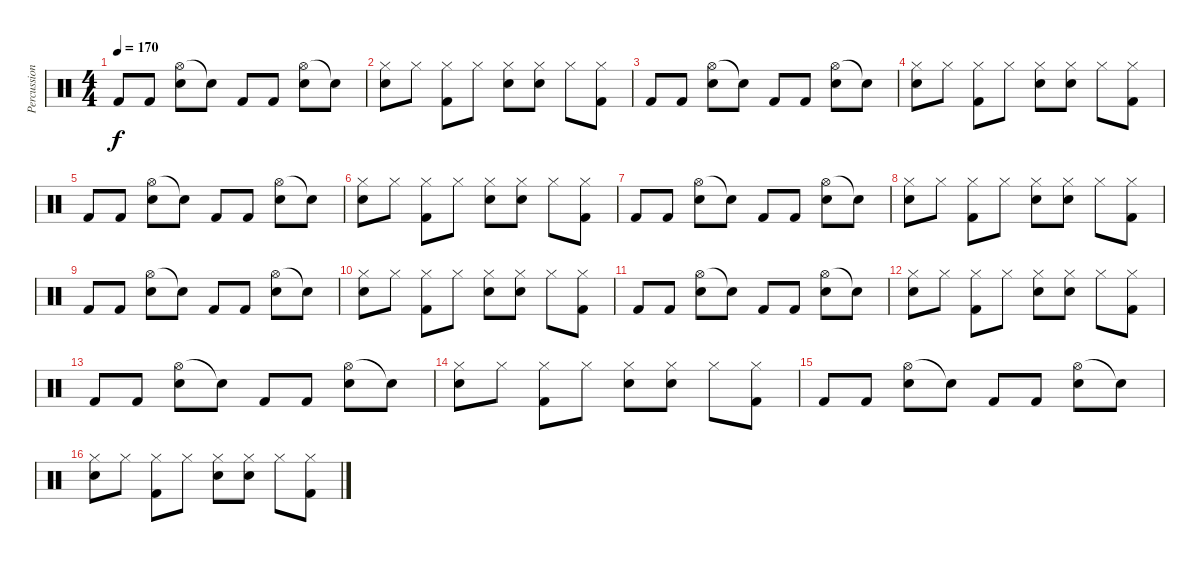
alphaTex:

\track ("Percussions" "Percussion") {instrument percussion}
\staff {score}
\articulation defaults
\ts (4 4)
\tempo 170
\clef neutral
\ks c "Kick (hit) 2".8{dy f} "Kick (hit) 2".8
("Hi-Hat (open)" "Snare (hit) 2").8 "Snare (hit)"{t}.8 "Kick (hit) 2".8 "Kick (hit) 2".8 ("Hi-Hat (open)" "Snare (hit) 2").8 "Snare (hit)"{t}.8 |
("Hi-Hat (closed)" "Snare (hit) 2").8 "Hi-Hat (closed)".8 ("Hi-Hat (closed)" "Kick (hit) 2").8 "Hi-Hat (closed)".8 ("Hi-Hat (closed)" "Snare (hit) 2").8 ("Hi-Hat (closed)" "Snare (hit) 2").8 "Hi-Hat (closed)".8 ("Hi-Hat (closed)" "Kick (hit) 2").8 |
"Kick (hit) 2".8 "Kick (hit) 2".8 ("Hi-Hat (open)" "Snare (hit) 2").8 "Snare (hit)"{t}.8 "Kick (hit) 2".8 "Kick (hit) 2".8 ("Hi-Hat (open)" "Snare (hit) 2").8 "Snare (hit)"{t}.8 |
("Hi-Hat (closed)" "Snare (hit) 2").8 "Hi-Hat (closed)".8 ("Hi-Hat (closed)" "Kick (hit) 2").8 "Hi-Hat (closed)".8 ("Hi-Hat (closed)" "Snare (hit) 2").8 ("Hi-Hat (closed)" "Snare (hit) 2").8 "Hi-Hat (closed)".8 ("Hi-Hat (closed)" "Kick (hit) 2").8 |
"Kick (hit) 2".8 "Kick (hit) 2".8 ("Hi-Hat (open)" "Snare (hit) 2").8 "Snare (hit)"{t}.8 "Kick (hit) 2".8 "Kick (hit) 2".8 ("Hi-Hat (open)" "Snare (hit) 2").8 "Snare (hit)"{t}.8 |
("Hi-Hat (closed)" "Snare (hit) 2").8 "Hi-Hat (closed)".8 ("Hi-Hat (closed)" "Kick (hit) 2").8 "Hi-Hat (closed)".8 ("Hi-Hat (closed)" "Snare (hit) 2").8 ("Hi-Hat (closed)" "Snare (hit) 2").8 "Hi-Hat (closed)".8 ("Hi-Hat (closed)" "Kick (hit) 2").8 |
"Kick (hit) 2".8 "Kick (hit) 2".8 ("Hi-Hat (open)" "Snare (hit) 2").8 "Snare (hit)"{t}.8 "Kick (hit) 2".8 "Kick (hit) 2".8 ("Hi-Hat (open)" "Snare (hit) 2").8 "Snare (hit)"{t}.8 |
("Hi-Hat (closed)" "Snare (hit) 2").8 "Hi-Hat (closed)".8 ("Hi-Hat (closed)" "Kick (hit) 2").8 "Hi-Hat (closed)".8 ("Hi-Hat (closed)" "Snare (hit) 2").8 ("Hi-Hat (closed)" "Snare (hit) 2").8 "Hi-Hat (closed)".8 ("Hi-Hat (closed)" "Kick (hit) 2").8 |
"Kick (hit) 2".8 "Kick (hit) 2".8 ("Hi-Hat (open)" "Snare (hit) 2").8 "Snare (hit)"{t}.8 "Kick (hit) 2".8 "Kick (hit) 2".8 ("Hi-Hat (open)" "Snare (hit) 2").8 "Snare (hit)"{t}.8 |
("Hi-Hat (closed)" "Snare (hit) 2").8 "Hi-Hat (closed)".8 ("Hi-Hat (closed)" "Kick (hit) 2").8 "Hi-Hat (closed)".8 ("Hi-Hat (closed)" "Snare (hit) 2").8 ("Hi-Hat (closed)" "Snare (hit) 2").8 "Hi-Hat (closed)".8 ("Hi-Hat (closed)" "Kick (hit) 2").8 |
"Kick (hit) 2".8 "Kick (hit) 2".8 ("Hi-Hat (open)" "Snare (hit) 2").8 "Snare (hit)"{t}.8 "Kick (hit) 2".8 "Kick (hit) 2".8 ("Hi-Hat (open)" "Snare (hit) 2").8 "Snare (hit)"{t}.8 |
("Hi-Hat (closed)" "Snare (hit) 2").8 "Hi-Hat (closed)".8 ("Hi-Hat (closed)" "Kick (hit) 2").8 "Hi-Hat (closed)".8 ("Hi-Hat (closed)" "Snare (hit) 2").8 ("Hi-Hat (closed)" "Snare (hit) 2").8 "Hi-Hat (closed)".8 ("Hi-Hat (closed)" "Kick (hit) 2").8 |
"Kick (hit) 2".8 "Kick (hit) 2".8 ("Hi-Hat (open)" "Snare (hit) 2").8 "Snare (hit)"{t}.8 "Kick (hit) 2".8 "Kick (hit) 2".8 ("Hi-Hat (open)" "Snare (hit) 2").8 "Snare (hit)"{t}.8 |
("Hi-Hat (closed)" "Snare (hit) 2").8 "Hi-Hat (closed)".8 ("Hi-Hat (closed)" "Kick (hit) 2").8 "Hi-Hat (closed)".8 ("Hi-Hat (closed)" "Snare (hit) 2").8 ("Hi-Hat (closed)" "Snare (hit) 2").8 "Hi-Hat (closed)".8 ("Hi-Hat (closed)" "Kick (hit) 2").8 |
"Kick (hit) 2".8 "Kick (hit) 2".8 ("Hi-Hat (open)" "Snare (hit) 2").8 "Snare (hit)"{t}.8 "Kick (hit) 2".8 "Kick (hit) 2".8 ("Hi-Hat (open)" "Snare (hit) 2").8 "Snare (hit)"{t}.8 |
("Hi-Hat (closed)" "Snare (hit) 2").8 "Hi-Hat (closed)".8 ("Hi-Hat (closed)" "Kick (hit) 2").8 "Hi-Hat (closed)".8 ("Hi-Hat (closed)" "Snare (hit) 2").8 ("Hi-Hat (closed)" "Snare (hit) 2").8 "Hi-Hat (closed)".8 ("Hi-Hat (closed)" "Kick (hit) 2").8
